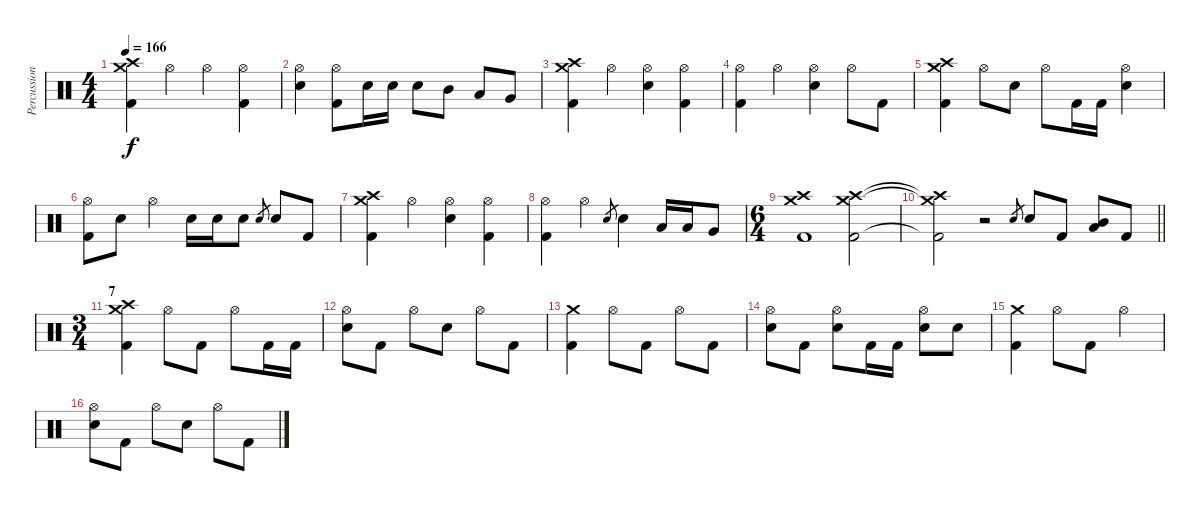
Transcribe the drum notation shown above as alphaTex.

\track ("Percussion" "Percussion") {instrument percussion}
\staff {score}
\articulation defaults
\ts (4 4)
\tempo 166
\clef neutral
\ks c
("Crash medium (hit)" "Crash high (hit)" "Kick (hit) 2").4{dy f} "Hi-Hat (open)".4 "Hi-Hat (open)".4 ("Hi-Hat (open)" "Kick (hit) 2").4 |
("Hi-Hat (open)" "Electric Snare (hit)").4 ("Hi-Hat (open)" "Kick (hit) 2").8 "Electric Snare (hit)".16 "Electric Snare (hit)".16 "Electric Snare (hit)".8 "Mid Tom (hit)".8 "Low Floor Tom (hit)".8 "Very Low Tom (hit)".8 |
("Crash medium (hit)" "Crash high (hit)" "Kick (hit) 2").4 "Hi-Hat (open)".4 ("Hi-Hat (open)" "Electric Snare (hit)").4 ("Hi-Hat (open)" "Kick (hit) 2").4 |
("Hi-Hat (open)" "Kick (hit) 2").4 "Hi-Hat (open)".4 ("Hi-Hat (open)" "Electric Snare (hit)").4 "Hi-Hat (open)".8 "Kick (hit) 2".8 |
("Crash medium (hit)" "Crash high (hit)" "Kick (hit) 2").4 "Hi-Hat (open)".8 "Electric Snare (hit)".8 "Hi-Hat (open)".8 "Kick (hit) 2".16 "Kick (hit) 2".16 ("Hi-Hat (open)" "Electric Snare (hit)").4 |
("Hi-Hat (open)" "Kick (hit) 2").8 "Electric Snare (hit)".8 "Hi-Hat (open)".4 "Electric Snare (hit)".16 "Electric Snare (hit)".16 "Electric Snare (hit)".8 "Electric Snare (hit)".8{gr} "Electric Snare (hit)".8 "Kick (hit) 2".8 |
("Crash medium (hit)" "Crash high (hit)" "Kick (hit) 2").4 "Hi-Hat (open)".4 ("Hi-Hat (open)" "Electric Snare (hit)").4 ("Hi-Hat (open)" "Kick (hit) 2").4 |
("Hi-Hat (open)" "Kick (hit) 2").4 "Hi-Hat (open)".4 "Electric Snare (hit)".8{gr} "Electric Snare (hit)".4 "Low Floor Tom (hit)".16 "Low Floor Tom (hit)".16 "Very Low Tom (hit)".8 |
\ts (6 4)
("Crash medium (hit)" "Crash high (hit)" "Kick (hit) 2").1 ("Crash high (hit)" "Crash medium (hit)" "Kick (hit) 2").2 |
\barLineRight lightlight
("Crash high (hit)"{t} "Crash medium (hit)"{t} "Kick (hit) 2"{t}).2 r.2 "Electric Snare (hit)".8{gr} "Electric Snare (hit)".8 "Kick (hit) 2".8 ("Mid Tom (hit)" "Low Floor Tom (hit)").8 "Kick (hit) 2".8 |
\ts (3 4)
\section ("" "7")
("Crash medium (hit)" "Crash high (hit)" "Kick (hit) 2").4 "Hi-Hat (open)".8 "Kick (hit) 2".8 "Hi-Hat (open)".8 "Kick (hit) 2".16 "Kick (hit) 2".16 |
("Hi-Hat (open)" "Electric Snare (hit)").8 "Kick (hit) 2".8 "Hi-Hat (open)".8 "Electric Snare (hit)".8 "Hi-Hat (open)".8 "Kick (hit) 2".8 |
("Crash medium (hit)" "Kick (hit) 2").4 "Hi-Hat (open)".8 "Kick (hit) 2".8 "Hi-Hat (open)".8 "Kick (hit) 2".8 |
("Hi-Hat (open)" "Electric Snare (hit)").8 "Kick (hit) 2".8 ("Hi-Hat (open)" "Electric Snare (hit)").8 "Kick (hit) 2".16 "Kick (hit) 2".16 ("Hi-Hat (open)" "Electric Snare (hit)").8 "Electric Snare (hit)".8 |
("Crash medium (hit)" "Kick (hit) 2").4 "Hi-Hat (open)".8 "Kick (hit) 2".8 "Hi-Hat (open)".4 |
("Hi-Hat (open)" "Electric Snare (hit)").8 "Kick (hit) 2".8 "Hi-Hat (open)".8 "Electric Snare (hit)".8 "Hi-Hat (open)".8 "Kick (hit) 2".8
